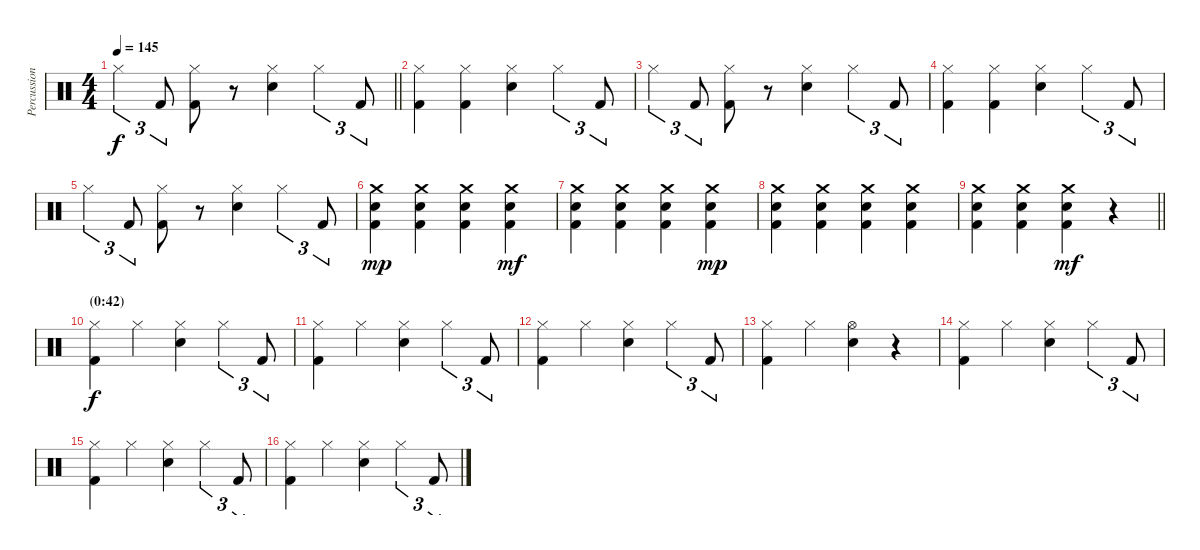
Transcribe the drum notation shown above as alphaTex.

\track ("Percussion" "Percussion") {instrument percussion}
\staff {score}
\articulation defaults
\ts (4 4)
\tempo 145
\clef neutral
\barLineRight lightlight
\ks c "Hi-Hat (closed)".4{tu (3 2) dy f} "Kick (hit) 2".8{tu (3 2)}
("Hi-Hat (closed)" "Kick (hit) 2").8 r.8 ("Hi-Hat (closed)" "Electric Snare (hit)").4 "Hi-Hat (closed)".4{tu (3 2)} "Kick (hit) 2".8{tu (3 2)} |
("Hi-Hat (closed)" "Kick (hit) 2").4 ("Hi-Hat (closed)" "Kick (hit) 2").4 ("Hi-Hat (closed)" "Electric Snare (hit)").4 "Hi-Hat (closed)".4{tu (3 2)} "Kick (hit) 2".8{tu (3 2)} |
"Hi-Hat (closed)".4{tu (3 2)} "Kick (hit) 2".8{tu (3 2)} ("Hi-Hat (closed)" "Kick (hit) 2").8 r.8 ("Hi-Hat (closed)" "Electric Snare (hit)").4 "Hi-Hat (closed)".4{tu (3 2)} "Kick (hit) 2".8{tu (3 2)} |
("Hi-Hat (closed)" "Kick (hit) 2").4 ("Hi-Hat (closed)" "Kick (hit) 2").4 ("Hi-Hat (closed)" "Electric Snare (hit)").4 "Hi-Hat (closed)".4{tu (3 2)} "Kick (hit) 2".8{tu (3 2)} |
"Hi-Hat (closed)".4{tu (3 2)} "Kick (hit) 2".8{tu (3 2)} ("Hi-Hat (closed)" "Kick (hit) 2").8 r.8 ("Hi-Hat (closed)" "Electric Snare (hit)").4 "Hi-Hat (closed)".4{tu (3 2)} "Kick (hit) 2".8{tu (3 2)} |
("Crash medium (hit)" "Electric Snare (hit)" "Kick (hit) 2").4{dy mp} ("Crash medium (hit)" "Electric Snare (hit)" "Kick (hit) 2").4 ("Crash medium (hit)" "Electric Snare (hit)" "Kick (hit) 2").4 ("Crash medium (hit)" "Electric Snare (hit)" "Kick (hit) 2").4{dy mf} |
("Crash medium (hit)" "Electric Snare (hit)" "Kick (hit) 2").4 ("Crash medium (hit)" "Electric Snare (hit)" "Kick (hit) 2").4 ("Crash medium (hit)" "Electric Snare (hit)" "Kick (hit) 2").4 ("Crash medium (hit)" "Electric Snare (hit)" "Kick (hit) 2").4{dy mp} |
("Crash medium (hit)" "Electric Snare (hit)" "Kick (hit) 2").4 ("Crash medium (hit)" "Electric Snare (hit)" "Kick (hit) 2").4 ("Crash medium (hit)" "Electric Snare (hit)" "Kick (hit) 2").4 ("Crash medium (hit)" "Electric Snare (hit)" "Kick (hit) 2").4 |
\barLineRight lightlight
("Crash medium (hit)" "Electric Snare (hit)" "Kick (hit) 2").4 ("Crash medium (hit)" "Electric Snare (hit)" "Kick (hit) 2").4 ("Crash medium (hit)" "Electric Snare (hit)" "Kick (hit) 2").4{dy mf} r.4 |
\section ("" "(0:42)")
("Hi-Hat (closed)" "Kick (hit) 2").4{dy f} "Hi-Hat (closed)".4 ("Hi-Hat (closed)" "Electric Snare (hit)").4 "Hi-Hat (closed)".4{tu (3 2)} "Kick (hit) 2".8{tu (3 2)} |
("Hi-Hat (closed)" "Kick (hit) 2").4 "Hi-Hat (closed)".4 ("Hi-Hat (closed)" "Electric Snare (hit)").4 "Hi-Hat (closed)".4{tu (3 2)} "Kick (hit) 2".8{tu (3 2)} |
("Hi-Hat (closed)" "Kick (hit) 2").4 "Hi-Hat (closed)".4 ("Hi-Hat (closed)" "Electric Snare (hit)").4 "Hi-Hat (closed)".4{tu (3 2)} "Kick (hit) 2".8{tu (3 2)} |
("Hi-Hat (closed)" "Kick (hit) 2").4 "Hi-Hat (closed)".4 ("Hi-Hat (open)" "Electric Snare (hit)").4 r.4 |
("Hi-Hat (closed)" "Kick (hit) 2").4 "Hi-Hat (closed)".4 ("Hi-Hat (closed)" "Electric Snare (hit)").4 "Hi-Hat (closed)".4{tu (3 2)} "Kick (hit) 2".8{tu (3 2)} |
("Hi-Hat (closed)" "Kick (hit) 2").4 "Hi-Hat (closed)".4 ("Hi-Hat (closed)" "Electric Snare (hit)").4 "Hi-Hat (closed)".4{tu (3 2)} "Kick (hit) 2".8{tu (3 2)} |
("Hi-Hat (closed)" "Kick (hit) 2").4 "Hi-Hat (closed)".4 ("Hi-Hat (closed)" "Electric Snare (hit)").4 "Hi-Hat (closed)".4{tu (3 2)} "Kick (hit) 2".8{tu (3 2)}
